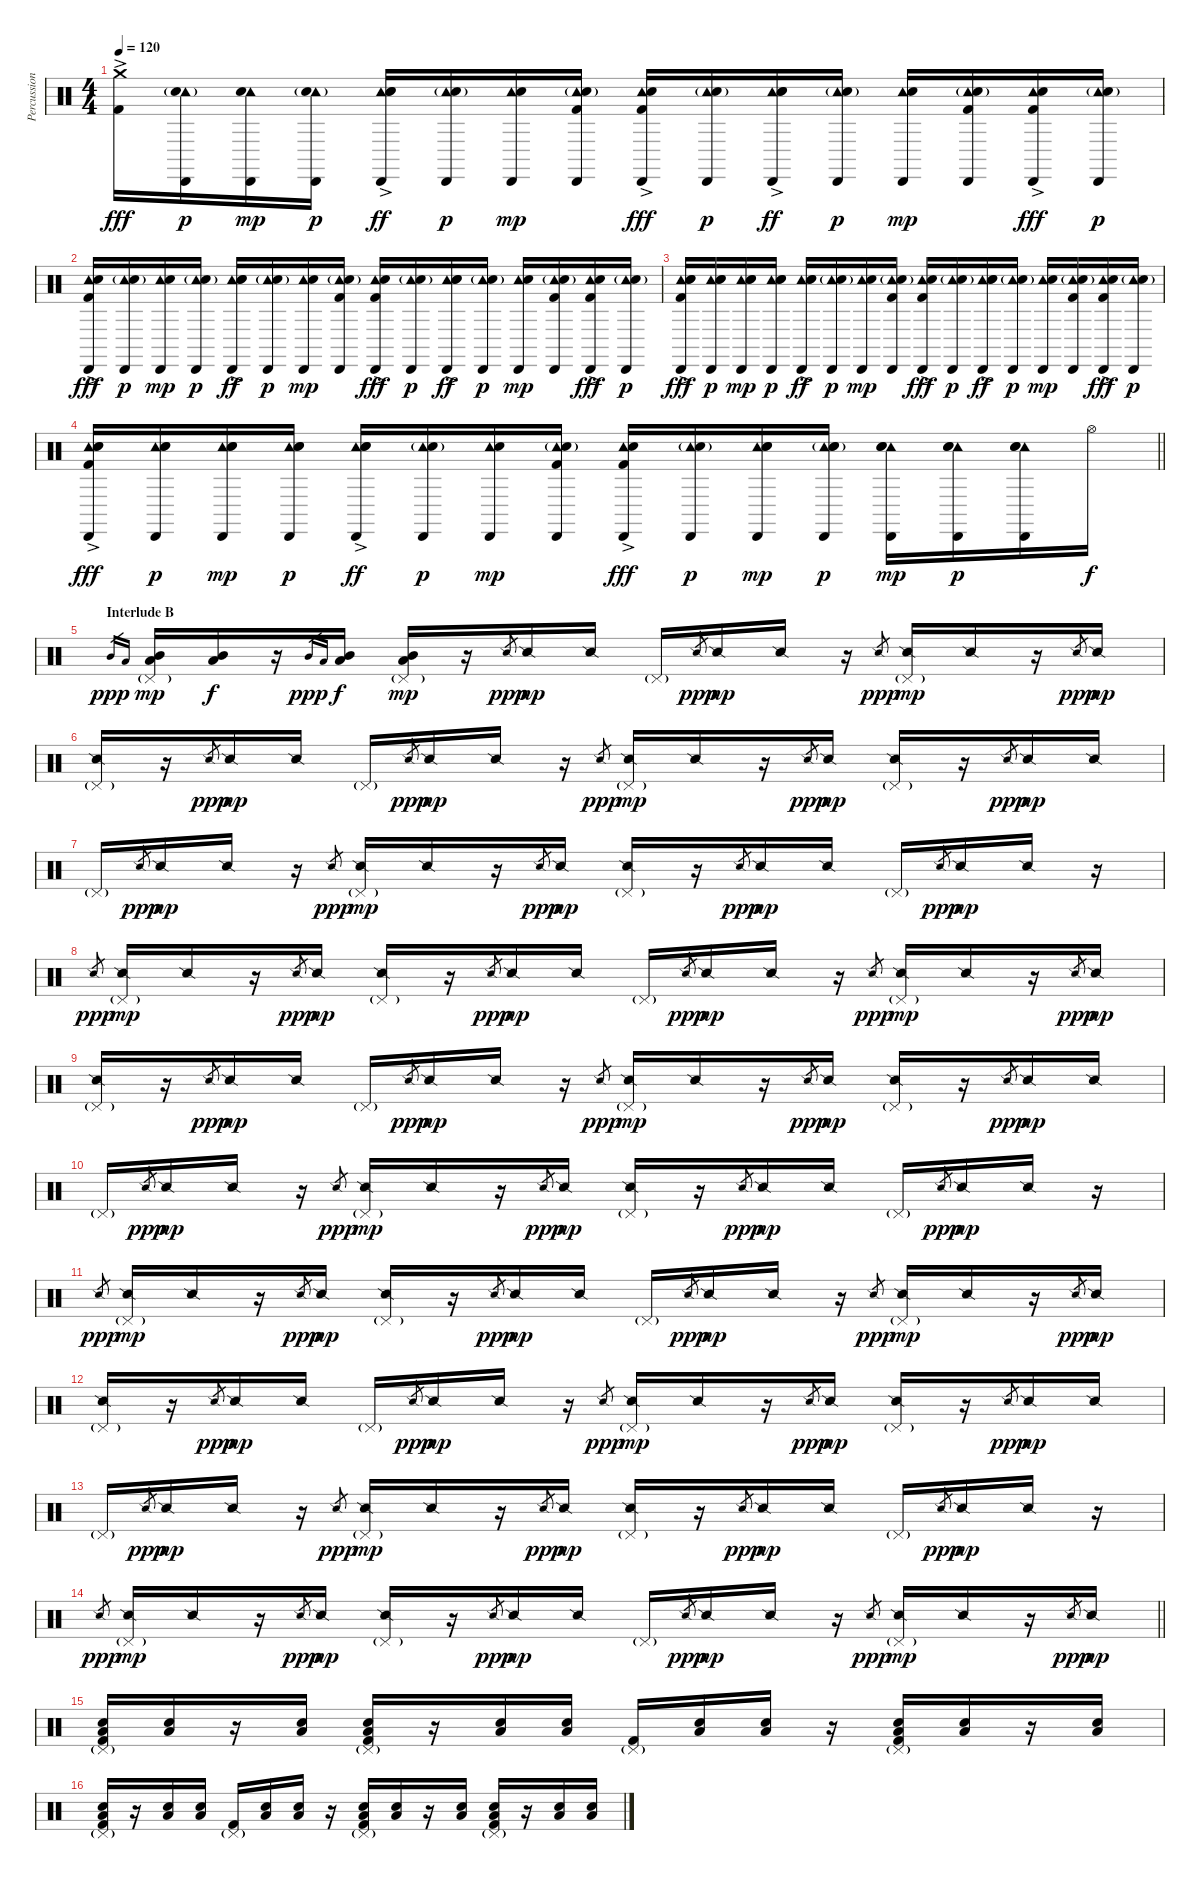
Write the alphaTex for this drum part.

\track ("Percussion" "Percussion") {instrument percussion}
\staff {score}
\articulation defaults
\ts (4 4)
\tempo 120
\clef neutral
\ks c
("Crash medium (hit)" "Kick (hit) 2"{ac}).16{dy fff} ("Tambourine (hit)" "Cabasa (hit)" "Electric Snare (hit)"{g}).16{dy p} ("Tambourine (hit)" "Cabasa (hit)" "Electric Snare (hit)").16{dy mp} ("Tambourine (hit)" "Cabasa (hit)" "Electric Snare (hit)"{g}).16{dy p} ("Tambourine (hit)" "Cabasa (hit)" "Electric Snare (hit)"{ac} "Snare (hit) 2").16{dy ff} ("Tambourine (hit)" "Cabasa (hit)" "Electric Snare (hit)"{g}).16{dy p} ("Tambourine (hit)" "Cabasa (hit)" "Electric Snare (hit)").16{dy mp} ("Tambourine (hit)" "Cabasa (hit)" "Electric Snare (hit)"{g} "Kick (hit) 2").16 ("Tambourine (hit)" "Cabasa (hit)" "Electric Snare (hit)" "Kick (hit) 2"{ac}).16{dy fff} ("Tambourine (hit)" "Cabasa (hit)" "Electric Snare (hit)"{g}).16{dy p} ("Tambourine (hit)" "Cabasa (hit)" "Electric Snare (hit)"{ac} "Snare (hit) 2").16{dy ff} ("Tambourine (hit)" "Cabasa (hit)" "Electric Snare (hit)"{g}).16{dy p} ("Tambourine (hit)" "Cabasa (hit)" "Electric Snare (hit)").16{dy mp} ("Tambourine (hit)" "Cabasa (hit)" "Electric Snare (hit)"{g} "Kick (hit) 2").16 ("Tambourine (hit)" "Cabasa (hit)" "Electric Snare (hit)" "Kick (hit) 2"{ac}).16{dy fff} ("Tambourine (hit)" "Cabasa (hit)" "Electric Snare (hit)"{g}).16{dy p} |
("Tambourine (hit)" "Cabasa (hit)" "Electric Snare (hit)" "Kick (hit) 2"{ac}).16{dy fff} ("Tambourine (hit)" "Cabasa (hit)" "Electric Snare (hit)"{g}).16{dy p} ("Tambourine (hit)" "Cabasa (hit)" "Electric Snare (hit)").16{dy mp} ("Tambourine (hit)" "Cabasa (hit)" "Electric Snare (hit)"{g}).16{dy p} ("Tambourine (hit)" "Cabasa (hit)" "Electric Snare (hit)"{ac} "Snare (hit) 2").16{dy ff} ("Tambourine (hit)" "Cabasa (hit)" "Electric Snare (hit)"{g}).16{dy p} ("Tambourine (hit)" "Cabasa (hit)" "Electric Snare (hit)").16{dy mp} ("Tambourine (hit)" "Cabasa (hit)" "Electric Snare (hit)"{g} "Kick (hit) 2").16 ("Tambourine (hit)" "Cabasa (hit)" "Electric Snare (hit)" "Kick (hit) 2"{ac}).16{dy fff} ("Tambourine (hit)" "Cabasa (hit)" "Electric Snare (hit)"{g}).16{dy p} ("Tambourine (hit)" "Cabasa (hit)" "Electric Snare (hit)"{ac} "Snare (hit) 2").16{dy ff} ("Tambourine (hit)" "Cabasa (hit)" "Electric Snare (hit)"{g}).16{dy p} ("Tambourine (hit)" "Cabasa (hit)" "Electric Snare (hit)").16{dy mp} ("Tambourine (hit)" "Cabasa (hit)" "Electric Snare (hit)"{g} "Kick (hit) 2").16 ("Tambourine (hit)" "Cabasa (hit)" "Electric Snare (hit)" "Kick (hit) 2"{ac}).16{dy fff} ("Tambourine (hit)" "Cabasa (hit)" "Electric Snare (hit)"{g}).16{dy p} |
("Tambourine (hit)" "Cabasa (hit)" "Electric Snare (hit)" "Snare (hit) 2" "Kick (hit) 2"{ac}).16{dy fff} ("Tambourine (hit)" "Cabasa (hit)" "Electric Snare (hit)" "Snare (hit) 2").16{dy p} ("Tambourine (hit)" "Cabasa (hit)" "Electric Snare (hit)" "Snare (hit) 2").16{dy mp} ("Tambourine (hit)" "Cabasa (hit)" "Electric Snare (hit)" "Snare (hit) 2").16{dy p} ("Tambourine (hit)" "Cabasa (hit)" "Electric Snare (hit)"{ac} "Snare (hit) 2").16{dy ff} ("Tambourine (hit)" "Cabasa (hit)" "Electric Snare (hit)"{g}).16{dy p} ("Tambourine (hit)" "Cabasa (hit)" "Electric Snare (hit)").16{dy mp} ("Tambourine (hit)" "Cabasa (hit)" "Electric Snare (hit)"{g} "Kick (hit) 2").16 ("Tambourine (hit)" "Cabasa (hit)" "Electric Snare (hit)" "Kick (hit) 2"{ac}).16{dy fff} ("Tambourine (hit)" "Cabasa (hit)" "Electric Snare (hit)"{g}).16{dy p} ("Tambourine (hit)" "Cabasa (hit)" "Electric Snare (hit)"{ac} "Snare (hit) 2").16{dy ff} ("Tambourine (hit)" "Cabasa (hit)" "Electric Snare (hit)"{g}).16{dy p} ("Tambourine (hit)" "Cabasa (hit)" "Electric Snare (hit)").16{dy mp} ("Tambourine (hit)" "Cabasa (hit)" "Electric Snare (hit)"{g} "Kick (hit) 2").16 ("Tambourine (hit)" "Cabasa (hit)" "Electric Snare (hit)" "Kick (hit) 2"{ac}).16{dy fff} ("Tambourine (hit)" "Cabasa (hit)" "Electric Snare (hit)"{g}).16{dy p} |
\barLineRight lightlight
("Tambourine (hit)" "Cabasa (hit)" "Electric Snare (hit)" "Snare (hit) 2" "Kick (hit) 2"{ac}).16{dy fff} ("Tambourine (hit)" "Cabasa (hit)" "Electric Snare (hit)" "Snare (hit) 2").16{dy p} ("Tambourine (hit)" "Cabasa (hit)" "Electric Snare (hit)" "Snare (hit) 2").16{dy mp} ("Tambourine (hit)" "Cabasa (hit)" "Electric Snare (hit)" "Snare (hit) 2").16{dy p} ("Tambourine (hit)" "Cabasa (hit)" "Electric Snare (hit)"{ac} "Snare (hit) 2").16{dy ff} ("Tambourine (hit)" "Cabasa (hit)" "Electric Snare (hit)"{g}).16{dy p} ("Tambourine (hit)" "Cabasa (hit)" "Electric Snare (hit)").16{dy mp} ("Tambourine (hit)" "Cabasa (hit)" "Electric Snare (hit)"{g} "Kick (hit) 2").16 ("Tambourine (hit)" "Cabasa (hit)" "Electric Snare (hit)" "Kick (hit) 2"{ac}).16{dy fff} ("Tambourine (hit)" "Cabasa (hit)" "Electric Snare (hit)"{g}).16{dy p} ("Tambourine (hit)" "Cabasa (hit)" "Electric Snare (hit)" "Snare (hit) 2").16{dy mp} ("Tambourine (hit)" "Cabasa (hit)" "Electric Snare (hit)"{g} "Snare (hit) 2").16{dy p} ("Tambourine (hit)" "Cabasa (hit)" "Electric Snare (hit)" "Snare (hit) 2").16{dy mp} ("Tambourine (hit)" "Cabasa (hit)" "Electric Snare (hit)" "Snare (hit) 2").16{dy p} ("Tambourine (hit)" "Cabasa (hit)" "Electric Snare (hit)" "Snare (hit) 2").16 "Hi-Hat (open)".16{dy f} |
\section ("" "Interlude B")
"Mid Tom (hit)".16{gr dy ppp} "Low Tom (hit)".16{gr} ("Pedal Hi-Hat (hit)"{g} "Mid Tom (hit)" "Low Tom (hit)").16{dy mp} ("Mid Tom (hit)" "Low Tom (hit)").16{dy f} r.16 "Mid Tom (hit)".16{gr dy ppp} "Low Tom (hit)".16{gr} ("Mid Tom (hit)" "Low Tom (hit)").16{dy f} ("Pedal Hi-Hat (hit)"{g} "Mid Tom (hit)" "Low Tom (hit)").16{dy mp} r.16 "Snare (side stick) 2".8{gr dy ppp} "Snare (side stick) 2".16{dy mp} "Snare (side stick) 2".16 "Pedal Hi-Hat (hit)"{g}.16 "Snare (side stick) 2".8{gr dy ppp} "Snare (side stick) 2".16{dy mp} "Snare (side stick) 2".16 r.16 "Snare (side stick) 2".8{gr dy ppp} ("Pedal Hi-Hat (hit)"{g} "Snare (side stick) 2").16{dy mp} "Snare (side stick) 2".16 r.16 "Snare (side stick) 2".8{gr dy ppp} "Snare (side stick) 2".16{dy mp} |
("Pedal Hi-Hat (hit)"{g} "Snare (side stick) 2").16 r.16 "Snare (side stick) 2".8{gr dy ppp} "Snare (side stick) 2".16{dy mp} "Snare (side stick) 2".16 "Pedal Hi-Hat (hit)"{g}.16 "Snare (side stick) 2".8{gr dy ppp} "Snare (side stick) 2".16{dy mp} "Snare (side stick) 2".16 r.16 "Snare (side stick) 2".8{gr dy ppp} ("Pedal Hi-Hat (hit)"{g} "Snare (side stick) 2").16{dy mp} "Snare (side stick) 2".16 r.16 "Snare (side stick) 2".8{gr dy ppp} "Snare (side stick) 2".16{dy mp} ("Pedal Hi-Hat (hit)"{g} "Snare (side stick) 2").16 r.16 "Snare (side stick) 2".8{gr dy ppp} "Snare (side stick) 2".16{dy mp} "Snare (side stick) 2".16 |
"Pedal Hi-Hat (hit)"{g}.16 "Snare (side stick) 2".8{gr dy ppp} "Snare (side stick) 2".16{dy mp} "Snare (side stick) 2".16 r.16 "Snare (side stick) 2".8{gr dy ppp} ("Pedal Hi-Hat (hit)"{g} "Snare (side stick) 2").16{dy mp} "Snare (side stick) 2".16 r.16 "Snare (side stick) 2".8{gr dy ppp} "Snare (side stick) 2".16{dy mp} ("Pedal Hi-Hat (hit)"{g} "Snare (side stick) 2").16 r.16 "Snare (side stick) 2".8{gr dy ppp} "Snare (side stick) 2".16{dy mp} "Snare (side stick) 2".16 "Pedal Hi-Hat (hit)"{g}.16 "Snare (side stick) 2".8{gr dy ppp} "Snare (side stick) 2".16{dy mp} "Snare (side stick) 2".16 r.16 |
"Snare (side stick) 2".8{gr dy ppp} ("Pedal Hi-Hat (hit)"{g} "Snare (side stick) 2").16{dy mp} "Snare (side stick) 2".16 r.16 "Snare (side stick) 2".8{gr dy ppp} "Snare (side stick) 2".16{dy mp} ("Pedal Hi-Hat (hit)"{g} "Snare (side stick) 2").16 r.16 "Snare (side stick) 2".8{gr dy ppp} "Snare (side stick) 2".16{dy mp} "Snare (side stick) 2".16 "Pedal Hi-Hat (hit)"{g}.16 "Snare (side stick) 2".8{gr dy ppp} "Snare (side stick) 2".16{dy mp} "Snare (side stick) 2".16 r.16 "Snare (side stick) 2".8{gr dy ppp} ("Pedal Hi-Hat (hit)"{g} "Snare (side stick) 2").16{dy mp} "Snare (side stick) 2".16 r.16 "Snare (side stick) 2".8{gr dy ppp} "Snare (side stick) 2".16{dy mp} |
("Pedal Hi-Hat (hit)"{g} "Snare (side stick) 2").16 r.16 "Snare (side stick) 2".8{gr dy ppp} "Snare (side stick) 2".16{dy mp} "Snare (side stick) 2".16 "Pedal Hi-Hat (hit)"{g}.16 "Snare (side stick) 2".8{gr dy ppp} "Snare (side stick) 2".16{dy mp} "Snare (side stick) 2".16 r.16 "Snare (side stick) 2".8{gr dy ppp} ("Pedal Hi-Hat (hit)"{g} "Snare (side stick) 2").16{dy mp} "Snare (side stick) 2".16 r.16 "Snare (side stick) 2".8{gr dy ppp} "Snare (side stick) 2".16{dy mp} ("Pedal Hi-Hat (hit)"{g} "Snare (side stick) 2").16 r.16 "Snare (side stick) 2".8{gr dy ppp} "Snare (side stick) 2".16{dy mp} "Snare (side stick) 2".16 |
"Pedal Hi-Hat (hit)"{g}.16 "Snare (side stick) 2".8{gr dy ppp} "Snare (side stick) 2".16{dy mp} "Snare (side stick) 2".16 r.16 "Snare (side stick) 2".8{gr dy ppp} ("Pedal Hi-Hat (hit)"{g} "Snare (side stick) 2").16{dy mp} "Snare (side stick) 2".16 r.16 "Snare (side stick) 2".8{gr dy ppp} "Snare (side stick) 2".16{dy mp} ("Pedal Hi-Hat (hit)"{g} "Snare (side stick) 2").16 r.16 "Snare (side stick) 2".8{gr dy ppp} "Snare (side stick) 2".16{dy mp} "Snare (side stick) 2".16 "Pedal Hi-Hat (hit)"{g}.16 "Snare (side stick) 2".8{gr dy ppp} "Snare (side stick) 2".16{dy mp} "Snare (side stick) 2".16 r.16 |
"Snare (side stick) 2".8{gr dy ppp} ("Pedal Hi-Hat (hit)"{g} "Snare (side stick) 2").16{dy mp} "Snare (side stick) 2".16 r.16 "Snare (side stick) 2".8{gr dy ppp} "Snare (side stick) 2".16{dy mp} ("Pedal Hi-Hat (hit)"{g} "Snare (side stick) 2").16 r.16 "Snare (side stick) 2".8{gr dy ppp} "Snare (side stick) 2".16{dy mp} "Snare (side stick) 2".16 "Pedal Hi-Hat (hit)"{g}.16 "Snare (side stick) 2".8{gr dy ppp} "Snare (side stick) 2".16{dy mp} "Snare (side stick) 2".16 r.16 "Snare (side stick) 2".8{gr dy ppp} ("Pedal Hi-Hat (hit)"{g} "Snare (side stick) 2").16{dy mp} "Snare (side stick) 2".16 r.16 "Snare (side stick) 2".8{gr dy ppp} "Snare (side stick) 2".16{dy mp} |
("Pedal Hi-Hat (hit)"{g} "Snare (side stick) 2").16 r.16 "Snare (side stick) 2".8{gr dy ppp} "Snare (side stick) 2".16{dy mp} "Snare (side stick) 2".16 "Pedal Hi-Hat (hit)"{g}.16 "Snare (side stick) 2".8{gr dy ppp} "Snare (side stick) 2".16{dy mp} "Snare (side stick) 2".16 r.16 "Snare (side stick) 2".8{gr dy ppp} ("Pedal Hi-Hat (hit)"{g} "Snare (side stick) 2").16{dy mp} "Snare (side stick) 2".16 r.16 "Snare (side stick) 2".8{gr dy ppp} "Snare (side stick) 2".16{dy mp} ("Pedal Hi-Hat (hit)"{g} "Snare (side stick) 2").16 r.16 "Snare (side stick) 2".8{gr dy ppp} "Snare (side stick) 2".16{dy mp} "Snare (side stick) 2".16 |
"Pedal Hi-Hat (hit)"{g}.16 "Snare (side stick) 2".8{gr dy ppp} "Snare (side stick) 2".16{dy mp} "Snare (side stick) 2".16 r.16 "Snare (side stick) 2".8{gr dy ppp} ("Pedal Hi-Hat (hit)"{g} "Snare (side stick) 2").16{dy mp} "Snare (side stick) 2".16 r.16 "Snare (side stick) 2".8{gr dy ppp} "Snare (side stick) 2".16{dy mp} ("Pedal Hi-Hat (hit)"{g} "Snare (side stick) 2").16 r.16 "Snare (side stick) 2".8{gr dy ppp} "Snare (side stick) 2".16{dy mp} "Snare (side stick) 2".16 "Pedal Hi-Hat (hit)"{g}.16 "Snare (side stick) 2".8{gr dy ppp} "Snare (side stick) 2".16{dy mp} "Snare (side stick) 2".16 r.16 |
\barLineRight lightlight "Snare (side stick) 2".8{gr dy ppp}
("Pedal Hi-Hat (hit)"{g} "Snare (side stick) 2").16{dy mp} "Snare (side stick) 2".16 r.16 "Snare (side stick) 2".8{gr dy ppp} "Snare (side stick) 2".16{dy mp} ("Pedal Hi-Hat (hit)"{g} "Snare (side stick) 2").16 r.16 "Snare (side stick) 2".8{gr dy ppp} "Snare (side stick) 2".16{dy mp} "Snare (side stick) 2".16 "Pedal Hi-Hat (hit)"{g}.16 "Snare (side stick) 2".8{gr dy ppp} "Snare (side stick) 2".16{dy mp} "Snare (side stick) 2".16 r.16 "Snare (side stick) 2".8{gr dy ppp} ("Pedal Hi-Hat (hit)"{g} "Snare (side stick) 2").16{dy mp} "Snare (side stick) 2".16 r.16 "Snare (side stick) 2".8{gr dy ppp} "Snare (side stick) 2".16{dy mp} |
("Pedal Hi-Hat (hit)"{g} "Electric Snare (hit)" "Low Tom (hit)" "Kick (hit) 2").16 ("Electric Snare (hit)" "Low Tom (hit)").16 r.16 ("Electric Snare (hit)" "Low Tom (hit)").16 ("Pedal Hi-Hat (hit)"{g} "Electric Snare (hit)" "Low Tom (hit)" "Kick (hit) 2").16 r.16 ("Electric Snare (hit)" "Low Tom (hit)").16 ("Electric Snare (hit)" "Low Tom (hit)").16 ("Pedal Hi-Hat (hit)"{g} "Kick (hit) 2").16 ("Electric Snare (hit)" "Low Tom (hit)").16 ("Electric Snare (hit)" "Low Tom (hit)").16 r.16 ("Pedal Hi-Hat (hit)"{g} "Electric Snare (hit)" "Low Tom (hit)" "Kick (hit) 2").16 ("Electric Snare (hit)" "Low Tom (hit)").16 r.16 ("Electric Snare (hit)" "Low Tom (hit)").16 |
("Pedal Hi-Hat (hit)"{g} "Electric Snare (hit)" "Low Tom (hit)" "Kick (hit) 2").16 r.16 ("Electric Snare (hit)" "Low Tom (hit)").16 ("Electric Snare (hit)" "Low Tom (hit)").16 ("Pedal Hi-Hat (hit)"{g} "Kick (hit) 2").16 ("Electric Snare (hit)" "Low Tom (hit)").16 ("Electric Snare (hit)" "Low Tom (hit)").16 r.16 ("Pedal Hi-Hat (hit)"{g} "Electric Snare (hit)" "Low Tom (hit)" "Kick (hit) 2").16 ("Electric Snare (hit)" "Low Tom (hit)").16 r.16 ("Electric Snare (hit)" "Low Tom (hit)").16 ("Pedal Hi-Hat (hit)"{g} "Electric Snare (hit)" "Low Tom (hit)" "Kick (hit) 2").16 r.16 ("Electric Snare (hit)" "Low Tom (hit)").16 ("Electric Snare (hit)" "Low Tom (hit)").16
